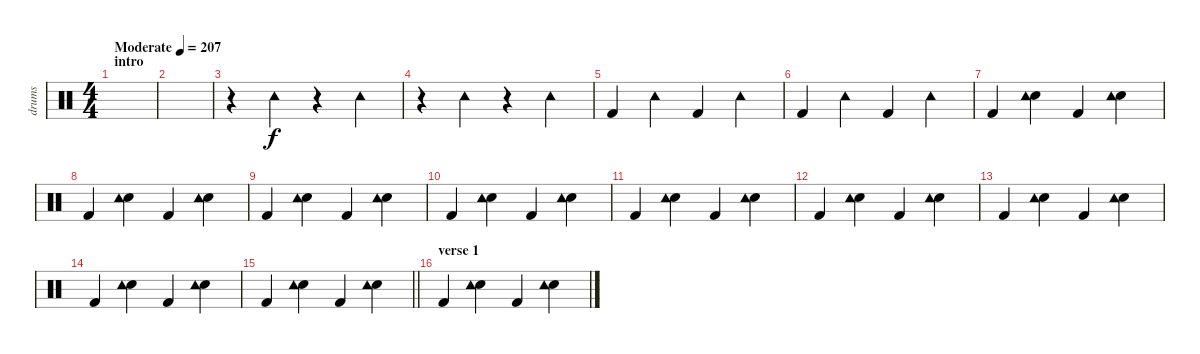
\track ("drums" "drums") {instrument percussion}
\staff {score}
\articulation defaults
\ts (4 4)
\section ("" "intro")
\tempo (207 "Moderate")
\clef neutral
\ks c
|
|
r.4 "Tambourine (hit)".4 r.4 "Tambourine (hit)".4 |
r.4 "Tambourine (hit)".4 r.4 "Tambourine (hit)".4 |
"Kick (hit) 2".4 "Tambourine (hit)".4 "Kick (hit) 2".4 "Tambourine (hit)".4 |
"Kick (hit) 2".4 "Tambourine (hit)".4 "Kick (hit) 2".4 "Tambourine (hit)".4 |
"Kick (hit) 2".4 ("Electric Snare (hit)" "Tambourine (hit)").4 "Kick (hit) 2".4 ("Electric Snare (hit)" "Tambourine (hit)").4 |
"Kick (hit) 2".4 ("Electric Snare (hit)" "Tambourine (hit)").4 "Kick (hit) 2".4 ("Electric Snare (hit)" "Tambourine (hit)").4 |
"Kick (hit) 2".4 ("Electric Snare (hit)" "Tambourine (hit)").4 "Kick (hit) 2".4 ("Electric Snare (hit)" "Tambourine (hit)").4 |
"Kick (hit) 2".4 ("Electric Snare (hit)" "Tambourine (hit)").4 "Kick (hit) 2".4 ("Electric Snare (hit)" "Tambourine (hit)").4 |
"Kick (hit) 2".4 ("Electric Snare (hit)" "Tambourine (hit)").4 "Kick (hit) 2".4 ("Electric Snare (hit)" "Tambourine (hit)").4 |
"Kick (hit) 2".4 ("Electric Snare (hit)" "Tambourine (hit)").4 "Kick (hit) 2".4 ("Electric Snare (hit)" "Tambourine (hit)").4 |
"Kick (hit) 2".4 ("Electric Snare (hit)" "Tambourine (hit)").4 "Kick (hit) 2".4 ("Electric Snare (hit)" "Tambourine (hit)").4 |
"Kick (hit) 2".4 ("Electric Snare (hit)" "Tambourine (hit)").4 "Kick (hit) 2".4 ("Electric Snare (hit)" "Tambourine (hit)").4 |
\barLineRight lightlight "Kick (hit) 2".4
("Electric Snare (hit)" "Tambourine (hit)").4 "Kick (hit) 2".4 ("Electric Snare (hit)" "Tambourine (hit)").4 |
\section ("" "verse 1")
"Kick (hit) 2".4 ("Electric Snare (hit)" "Tambourine (hit)").4 "Kick (hit) 2".4 ("Electric Snare (hit)" "Tambourine (hit)").4
